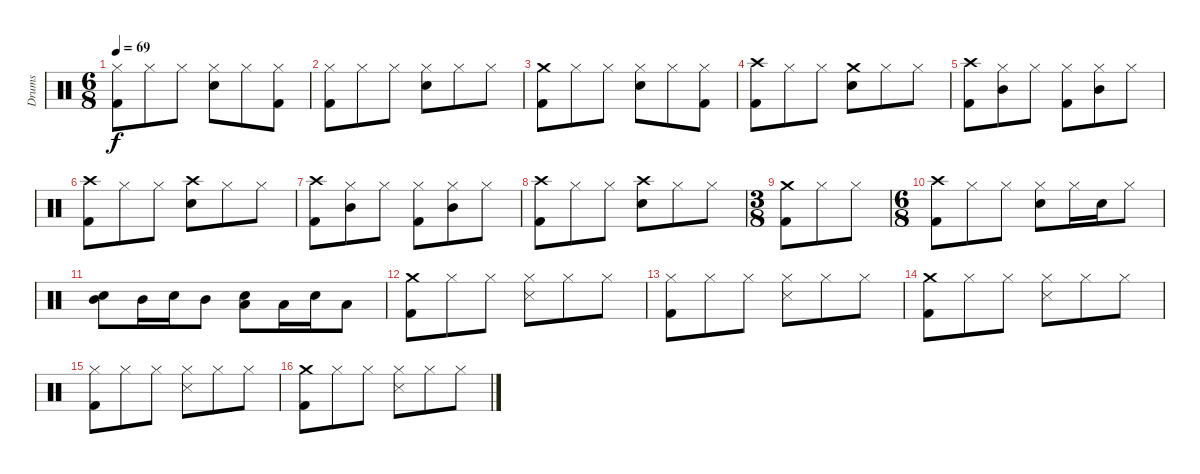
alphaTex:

\track ("Drums" "Drums") {instrument percussion}
\staff {score}
\articulation defaults
\ts (6 8)
\tempo 69
\clef neutral
\ks c
("Hi-Hat (closed)" "Kick (hit) 2").8{dy f} "Hi-Hat (closed)".8 "Hi-Hat (closed)".8 ("Hi-Hat (closed)" "Snare (hit) 2").8 "Hi-Hat (closed)".8 ("Hi-Hat (closed)" "Kick (hit) 2").8 |
("Hi-Hat (closed)" "Kick (hit) 2").8 "Hi-Hat (closed)".8 "Hi-Hat (closed)".8 ("Hi-Hat (closed)" "Snare (hit) 2").8 "Hi-Hat (closed)".8 "Hi-Hat (closed)".8 |
("Crash medium (hit)" "Kick (hit) 2").8 "Hi-Hat (closed)".8 "Hi-Hat (closed)".8 ("Hi-Hat (closed)" "Snare (hit) 2").8 "Hi-Hat (closed)".8 ("Hi-Hat (closed)" "Kick (hit) 2").8 |
("Crash high (hit)" "Kick (hit) 2").8 "Hi-Hat (closed)".8 "Hi-Hat (closed)".8 ("Crash medium (hit)" "Snare (hit) 2").8 "Hi-Hat (closed)".8 "Hi-Hat (closed)".8 |
("Crash high (hit)" "Kick (hit) 2").8 ("Hi-Hat (closed)" "Mid Tom (hit)").8 "Hi-Hat (closed)".8 ("Hi-Hat (closed)" "Kick (hit) 2").8 ("Hi-Hat (closed)" "Mid Tom (hit)").8 "Hi-Hat (closed)".8 |
("Crash high (hit)" "Kick (hit) 2").8 "Hi-Hat (closed)".8 "Hi-Hat (closed)".8 ("Crash high (hit)" "Snare (hit) 2").8 "Hi-Hat (closed)".8 "Hi-Hat (closed)".8 |
("Crash high (hit)" "Kick (hit) 2").8 ("Hi-Hat (closed)" "Mid Tom (hit)").8 "Hi-Hat (closed)".8 ("Hi-Hat (closed)" "Kick (hit) 2").8 ("Hi-Hat (closed)" "Mid Tom (hit)").8 "Hi-Hat (closed)".8 |
("Crash high (hit)" "Kick (hit) 2").8 "Hi-Hat (closed)".8 "Hi-Hat (closed)".8 ("Crash high (hit)" "Snare (hit) 2").8 "Hi-Hat (closed)".8 "Hi-Hat (closed)".8 |
\ts (3 8)
("Crash medium (hit)" "Kick (hit) 2").8 "Hi-Hat (closed)".8 "Hi-Hat (closed)".8 |
\ts (6 8)
("Crash high (hit)" "Kick (hit) 2").8 "Hi-Hat (closed)".8 "Hi-Hat (closed)".8 ("Hi-Hat (closed)" "Snare (hit) 2").8 "Hi-Hat (closed)".16 "Snare (hit) 2".16 "Hi-Hat (closed)".8 |
("Mid Tom (hit)" "Snare (hit) 2").8 "Mid Tom (hit)".16 "Snare (hit) 2".16 "Mid Tom (hit)".8 ("Snare (hit) 2" "Low Tom (hit)").8 "Low Tom (hit)".16 "Snare (hit) 2".16 "Low Tom (hit)".8 |
("Crash medium (hit)" "Kick (hit) 2").8 "Hi-Hat (closed)".8 "Hi-Hat (closed)".8 ("Hi-Hat (closed)" "Snare (side stick) 3").8 "Hi-Hat (closed)".8 "Hi-Hat (closed)".8 |
("Hi-Hat (closed)" "Kick (hit) 2").8 "Hi-Hat (closed)".8 "Hi-Hat (closed)".8 ("Hi-Hat (closed)" "Snare (side stick) 3").8 "Hi-Hat (closed)".8 "Hi-Hat (closed)".8 |
("Crash medium (hit)" "Kick (hit) 2").8 "Hi-Hat (closed)".8 "Hi-Hat (closed)".8 ("Hi-Hat (closed)" "Snare (side stick) 3").8 "Hi-Hat (closed)".8 "Hi-Hat (closed)".8 |
("Hi-Hat (closed)" "Kick (hit) 2").8 "Hi-Hat (closed)".8 "Hi-Hat (closed)".8 ("Hi-Hat (closed)" "Snare (side stick) 3").8 "Hi-Hat (closed)".8 "Hi-Hat (closed)".8 |
("Crash medium (hit)" "Kick (hit) 2").8 "Hi-Hat (closed)".8 "Hi-Hat (closed)".8 ("Hi-Hat (closed)" "Snare (side stick) 3").8 "Hi-Hat (closed)".8 "Hi-Hat (closed)".8
